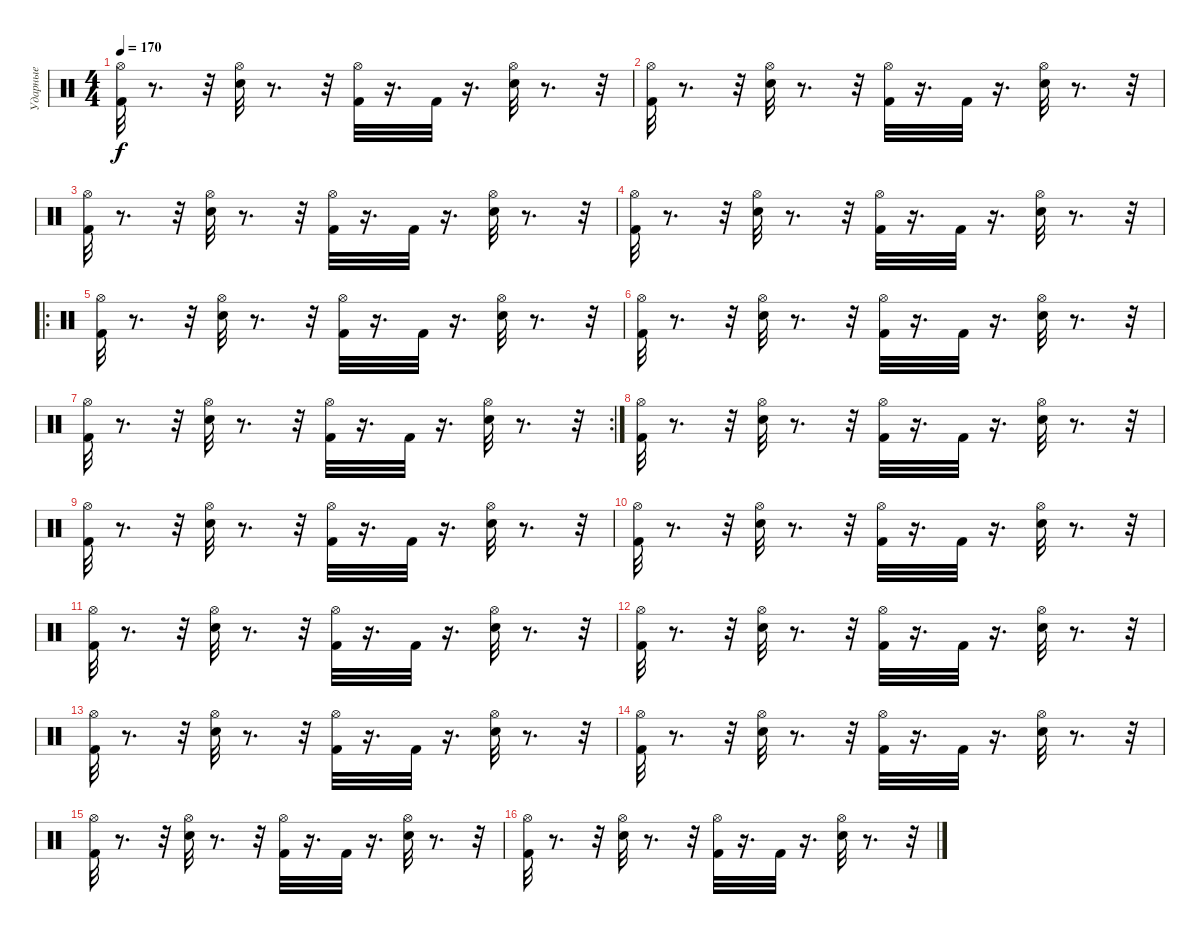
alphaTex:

\track ("Ударные" "Ударные") {instrument percussion}
\staff {score}
\articulation defaults
\ts (4 4)
\tempo 170
\clef neutral
\ks c
("Hi-Hat (open)" "Kick (hit) 2").32{dy f} r.8{d} r.32 ("Hi-Hat (open)" "Electric Snare (hit)").32 r.8{d} r.32 ("Hi-Hat (open)" "Kick (hit) 2").32 r.16{d} "Kick (hit) 2".32 r.16{d} ("Hi-Hat (open)" "Electric Snare (hit)").32 r.8{d} r.32 |
("Hi-Hat (open)" "Kick (hit) 2").32 r.8{d} r.32 ("Hi-Hat (open)" "Electric Snare (hit)").32 r.8{d} r.32 ("Hi-Hat (open)" "Kick (hit) 2").32 r.16{d} "Kick (hit) 2".32 r.16{d} ("Hi-Hat (open)" "Electric Snare (hit)").32 r.8{d} r.32 |
("Hi-Hat (open)" "Kick (hit) 2").32 r.8{d} r.32 ("Hi-Hat (open)" "Electric Snare (hit)").32 r.8{d} r.32 ("Hi-Hat (open)" "Kick (hit) 2").32 r.16{d} "Kick (hit) 2".32 r.16{d} ("Hi-Hat (open)" "Electric Snare (hit)").32 r.8{d} r.32 |
("Hi-Hat (open)" "Kick (hit) 2").32 r.8{d} r.32 ("Hi-Hat (open)" "Electric Snare (hit)").32 r.8{d} r.32 ("Hi-Hat (open)" "Kick (hit) 2").32 r.16{d} "Kick (hit) 2".32 r.16{d} ("Hi-Hat (open)" "Electric Snare (hit)").32 r.8{d} r.32 |
\ro
("Hi-Hat (open)" "Kick (hit) 2").32 r.8{d} r.32 ("Hi-Hat (open)" "Electric Snare (hit)").32 r.8{d} r.32 ("Hi-Hat (open)" "Kick (hit) 2").32 r.16{d} "Kick (hit) 2".32 r.16{d} ("Hi-Hat (open)" "Electric Snare (hit)").32 r.8{d} r.32 |
("Hi-Hat (open)" "Kick (hit) 2").32 r.8{d} r.32 ("Hi-Hat (open)" "Electric Snare (hit)").32 r.8{d} r.32 ("Hi-Hat (open)" "Kick (hit) 2").32 r.16{d} "Kick (hit) 2".32 r.16{d} ("Hi-Hat (open)" "Electric Snare (hit)").32 r.8{d} r.32 |
\rc 2
("Hi-Hat (open)" "Kick (hit) 2").32 r.8{d} r.32 ("Hi-Hat (open)" "Electric Snare (hit)").32 r.8{d} r.32 ("Hi-Hat (open)" "Kick (hit) 2").32 r.16{d} "Kick (hit) 2".32 r.16{d} ("Hi-Hat (open)" "Electric Snare (hit)").32 r.8{d} r.32 |
("Hi-Hat (open)" "Kick (hit) 2").32 r.8{d} r.32 ("Hi-Hat (open)" "Electric Snare (hit)").32 r.8{d} r.32 ("Hi-Hat (open)" "Kick (hit) 2").32 r.16{d} "Kick (hit) 2".32 r.16{d} ("Hi-Hat (open)" "Electric Snare (hit)").32 r.8{d} r.32 |
("Hi-Hat (open)" "Kick (hit) 2").32 r.8{d} r.32 ("Hi-Hat (open)" "Electric Snare (hit)").32 r.8{d} r.32 ("Hi-Hat (open)" "Kick (hit) 2").32 r.16{d} "Kick (hit) 2".32 r.16{d} ("Hi-Hat (open)" "Electric Snare (hit)").32 r.8{d} r.32 |
("Hi-Hat (open)" "Kick (hit) 2").32 r.8{d} r.32 ("Hi-Hat (open)" "Electric Snare (hit)").32 r.8{d} r.32 ("Hi-Hat (open)" "Kick (hit) 2").32 r.16{d} "Kick (hit) 2".32 r.16{d} ("Hi-Hat (open)" "Electric Snare (hit)").32 r.8{d} r.32 |
("Hi-Hat (open)" "Kick (hit) 2").32 r.8{d} r.32 ("Hi-Hat (open)" "Electric Snare (hit)").32 r.8{d} r.32 ("Hi-Hat (open)" "Kick (hit) 2").32 r.16{d} "Kick (hit) 2".32 r.16{d} ("Hi-Hat (open)" "Electric Snare (hit)").32 r.8{d} r.32 |
("Hi-Hat (open)" "Kick (hit) 2").32 r.8{d} r.32 ("Hi-Hat (open)" "Electric Snare (hit)").32 r.8{d} r.32 ("Hi-Hat (open)" "Kick (hit) 2").32 r.16{d} "Kick (hit) 2".32 r.16{d} ("Hi-Hat (open)" "Electric Snare (hit)").32 r.8{d} r.32 |
("Hi-Hat (open)" "Kick (hit) 2").32 r.8{d} r.32 ("Hi-Hat (open)" "Electric Snare (hit)").32 r.8{d} r.32 ("Hi-Hat (open)" "Kick (hit) 2").32 r.16{d} "Kick (hit) 2".32 r.16{d} ("Hi-Hat (open)" "Electric Snare (hit)").32 r.8{d} r.32 |
("Hi-Hat (open)" "Kick (hit) 2").32 r.8{d} r.32 ("Hi-Hat (open)" "Electric Snare (hit)").32 r.8{d} r.32 ("Hi-Hat (open)" "Kick (hit) 2").32 r.16{d} "Kick (hit) 2".32 r.16{d} ("Hi-Hat (open)" "Electric Snare (hit)").32 r.8{d} r.32 |
("Hi-Hat (open)" "Kick (hit) 2").32 r.8{d} r.32 ("Hi-Hat (open)" "Electric Snare (hit)").32 r.8{d} r.32 ("Hi-Hat (open)" "Kick (hit) 2").32 r.16{d} "Kick (hit) 2".32 r.16{d} ("Hi-Hat (open)" "Electric Snare (hit)").32 r.8{d} r.32 |
("Hi-Hat (open)" "Kick (hit) 2").32 r.8{d} r.32 ("Hi-Hat (open)" "Electric Snare (hit)").32 r.8{d} r.32 ("Hi-Hat (open)" "Kick (hit) 2").32 r.16{d} "Kick (hit) 2".32 r.16{d} ("Hi-Hat (open)" "Electric Snare (hit)").32 r.8{d} r.32
